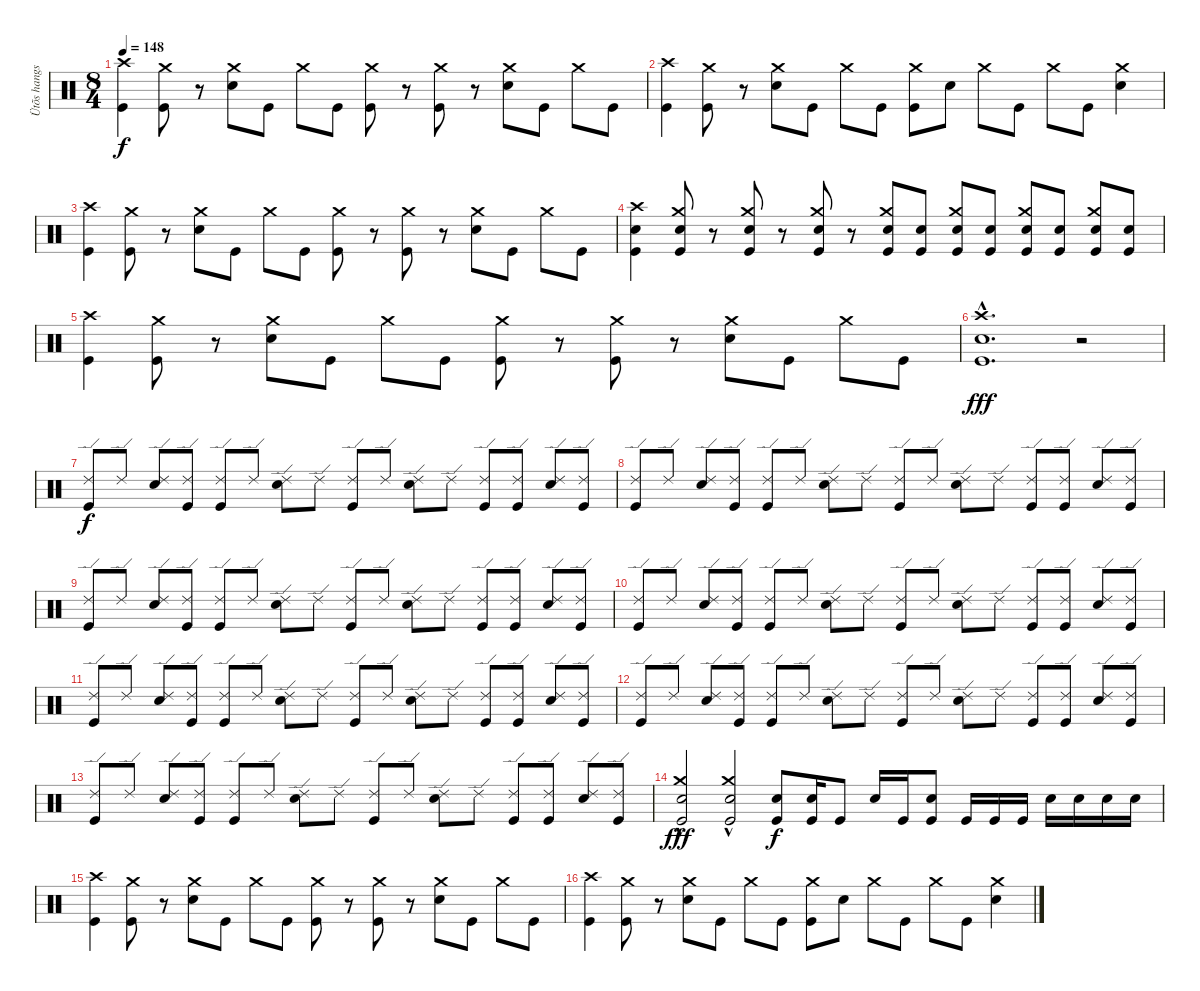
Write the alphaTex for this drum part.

\track ("Ütõs hangszer" "Ütõs hangs") {instrument percussion}
\staff {score}
\articulation defaults
\ts (8 4)
\tempo 148
\clef neutral
\ks c
("Crash high (hit)" "Kick (hit)").4{dy f} ("Crash medium (hit)" "Kick (hit)").8 r.8 ("Crash medium (hit)" "Electric Snare (hit)").8 "Kick (hit)".8 "Crash medium (hit)".8 "Kick (hit)".8 ("Crash medium (hit)" "Kick (hit)").8 r.8 ("Crash medium (hit)" "Kick (hit)").8 r.8 ("Crash medium (hit)" "Electric Snare (hit)").8 "Kick (hit)".8 "Crash medium (hit)".8 "Kick (hit)".8 |
("Crash high (hit)" "Kick (hit)").4 ("Crash medium (hit)" "Kick (hit)").8 r.8 ("Crash medium (hit)" "Electric Snare (hit)").8 "Kick (hit)".8 "Crash medium (hit)".8 "Kick (hit)".8 ("Crash medium (hit)" "Kick (hit)").8 "Electric Snare (hit)".8 "Crash medium (hit)".8 "Kick (hit)".8 "Crash medium (hit)".8 "Kick (hit)".8 ("Crash medium (hit)" "Electric Snare (hit)").4 |
("Crash high (hit)" "Kick (hit)").4 ("Crash medium (hit)" "Kick (hit)").8 r.8 ("Crash medium (hit)" "Electric Snare (hit)").8 "Kick (hit)".8 "Crash medium (hit)".8 "Kick (hit)".8 ("Crash medium (hit)" "Kick (hit)").8 r.8 ("Crash medium (hit)" "Kick (hit)").8 r.8 ("Crash medium (hit)" "Electric Snare (hit)").8 "Kick (hit)".8 "Crash medium (hit)".8 "Kick (hit)".8 |
("Crash high (hit)" "Electric Snare (hit)" "Kick (hit)").4 ("Crash medium (hit)" "Electric Snare (hit)" "Kick (hit)").8 r.8 ("Crash medium (hit)" "Electric Snare (hit)" "Kick (hit)").8 r.8 ("Crash medium (hit)" "Electric Snare (hit)" "Kick (hit)").8 r.8 ("Crash medium (hit)" "Electric Snare (hit)" "Kick (hit)").8 ("Electric Snare (hit)" "Kick (hit)").8 ("Crash medium (hit)" "Electric Snare (hit)" "Kick (hit)").8 ("Electric Snare (hit)" "Kick (hit)").8 ("Crash medium (hit)" "Electric Snare (hit)" "Kick (hit)").8 ("Electric Snare (hit)" "Kick (hit)").8 ("Crash medium (hit)" "Electric Snare (hit)" "Kick (hit)").8 ("Electric Snare (hit)" "Kick (hit)").8 |
("Crash high (hit)" "Kick (hit)").4 ("Crash medium (hit)" "Kick (hit)").8 r.8 ("Crash medium (hit)" "Electric Snare (hit)").8 "Kick (hit)".8 "Crash medium (hit)".8 "Kick (hit)".8 ("Crash medium (hit)" "Kick (hit)").8 r.8 ("Crash medium (hit)" "Kick (hit)").8 r.8 ("Crash medium (hit)" "Electric Snare (hit)").8 "Kick (hit)".8 "Crash medium (hit)".8 "Kick (hit)".8 |
("Crash high (hit)"{hac} "Electric Snare (hit)" "Kick (hit)").1{d dy fff} r.2 |
("Ride (edge) 2" "Kick (hit)").8{dy f} "Ride (edge) 2".8 ("Ride (edge) 2" "Electric Snare (hit)").8 ("Ride (edge) 2" "Kick (hit)").8 ("Ride (edge) 2" "Kick (hit)").8 "Ride (edge) 2".8 ("Ride (edge) 2" "Electric Snare (hit)").8 "Ride (edge) 2".8 ("Ride (edge) 2" "Kick (hit)").8 "Ride (edge) 2".8 ("Ride (edge) 2" "Electric Snare (hit)").8 "Ride (edge) 2".8 ("Ride (edge) 2" "Kick (hit)").8 ("Ride (edge) 2" "Kick (hit)").8 ("Ride (edge) 2" "Electric Snare (hit)").8 ("Ride (edge) 2" "Kick (hit)").8 |
("Ride (edge) 2" "Kick (hit)").8 "Ride (edge) 2".8 ("Ride (edge) 2" "Electric Snare (hit)").8 ("Ride (edge) 2" "Kick (hit)").8 ("Ride (edge) 2" "Kick (hit)").8 "Ride (edge) 2".8 ("Ride (edge) 2" "Electric Snare (hit)").8 "Ride (edge) 2".8 ("Ride (edge) 2" "Kick (hit)").8 "Ride (edge) 2".8 ("Ride (edge) 2" "Electric Snare (hit)").8 "Ride (edge) 2".8 ("Ride (edge) 2" "Kick (hit)").8 ("Ride (edge) 2" "Kick (hit)").8 ("Ride (edge) 2" "Electric Snare (hit)").8 ("Ride (edge) 2" "Kick (hit)").8 |
("Ride (edge) 2" "Kick (hit)").8 "Ride (edge) 2".8 ("Ride (edge) 2" "Electric Snare (hit)").8 ("Ride (edge) 2" "Kick (hit)").8 ("Ride (edge) 2" "Kick (hit)").8 "Ride (edge) 2".8 ("Ride (edge) 2" "Electric Snare (hit)").8 "Ride (edge) 2".8 ("Ride (edge) 2" "Kick (hit)").8 "Ride (edge) 2".8 ("Ride (edge) 2" "Electric Snare (hit)").8 "Ride (edge) 2".8 ("Ride (edge) 2" "Kick (hit)").8 ("Ride (edge) 2" "Kick (hit)").8 ("Ride (edge) 2" "Electric Snare (hit)").8 ("Ride (edge) 2" "Kick (hit)").8 |
("Ride (edge) 2" "Kick (hit)").8 "Ride (edge) 2".8 ("Ride (edge) 2" "Electric Snare (hit)").8 ("Ride (edge) 2" "Kick (hit)").8 ("Ride (edge) 2" "Kick (hit)").8 "Ride (edge) 2".8 ("Ride (edge) 2" "Electric Snare (hit)").8 "Ride (edge) 2".8 ("Ride (edge) 2" "Kick (hit)").8 "Ride (edge) 2".8 ("Ride (edge) 2" "Electric Snare (hit)").8 "Ride (edge) 2".8 ("Ride (edge) 2" "Kick (hit)").8 ("Ride (edge) 2" "Kick (hit)").8 ("Ride (edge) 2" "Electric Snare (hit)").8 ("Ride (edge) 2" "Kick (hit)").8 |
("Ride (edge) 2" "Kick (hit)").8 "Ride (edge) 2".8 ("Ride (edge) 2" "Electric Snare (hit)").8 ("Ride (edge) 2" "Kick (hit)").8 ("Ride (edge) 2" "Kick (hit)").8 "Ride (edge) 2".8 ("Ride (edge) 2" "Electric Snare (hit)").8 "Ride (edge) 2".8 ("Ride (edge) 2" "Kick (hit)").8 "Ride (edge) 2".8 ("Ride (edge) 2" "Electric Snare (hit)").8 "Ride (edge) 2".8 ("Ride (edge) 2" "Kick (hit)").8 ("Ride (edge) 2" "Kick (hit)").8 ("Ride (edge) 2" "Electric Snare (hit)").8 ("Ride (edge) 2" "Kick (hit)").8 |
("Ride (edge) 2" "Kick (hit)").8 "Ride (edge) 2".8 ("Ride (edge) 2" "Electric Snare (hit)").8 ("Ride (edge) 2" "Kick (hit)").8 ("Ride (edge) 2" "Kick (hit)").8 "Ride (edge) 2".8 ("Ride (edge) 2" "Electric Snare (hit)").8 "Ride (edge) 2".8 ("Ride (edge) 2" "Kick (hit)").8 "Ride (edge) 2".8 ("Ride (edge) 2" "Electric Snare (hit)").8 "Ride (edge) 2".8 ("Ride (edge) 2" "Kick (hit)").8 ("Ride (edge) 2" "Kick (hit)").8 ("Ride (edge) 2" "Electric Snare (hit)").8 ("Ride (edge) 2" "Kick (hit)").8 |
("Ride (edge) 2" "Kick (hit)").8 "Ride (edge) 2".8 ("Ride (edge) 2" "Electric Snare (hit)").8 ("Ride (edge) 2" "Kick (hit)").8 ("Ride (edge) 2" "Kick (hit)").8 "Ride (edge) 2".8 ("Ride (edge) 2" "Electric Snare (hit)").8 "Ride (edge) 2".8 ("Ride (edge) 2" "Kick (hit)").8 "Ride (edge) 2".8 ("Ride (edge) 2" "Electric Snare (hit)").8 "Ride (edge) 2".8 ("Ride (edge) 2" "Kick (hit)").8 ("Ride (edge) 2" "Kick (hit)").8 ("Ride (edge) 2" "Electric Snare (hit)").8 ("Ride (edge) 2" "Kick (hit)").8 |
("Crash medium (hit)"{hac} "Electric Snare (hit)" "Kick (hit)").2{dy fff} ("Crash medium (hit)"{hac} "Electric Snare (hit)" "Kick (hit)").2 ("Electric Snare (hit)" "Kick (hit)").8{dy f} ("Electric Snare (hit)" "Kick (hit)").16 "Kick (hit)".8 "Electric Snare (hit)".16 "Kick (hit)".16 ("Electric Snare (hit)" "Kick (hit)").8 "Kick (hit)".16 "Kick (hit)".16 "Kick (hit)".16 "Electric Snare (hit)".16 "Electric Snare (hit)".16 "Electric Snare (hit)".16 "Electric Snare (hit)".16 |
("Crash high (hit)" "Kick (hit)").4 ("Crash medium (hit)" "Kick (hit)").8 r.8 ("Crash medium (hit)" "Electric Snare (hit)").8 "Kick (hit)".8 "Crash medium (hit)".8 "Kick (hit)".8 ("Crash medium (hit)" "Kick (hit)").8 r.8 ("Crash medium (hit)" "Kick (hit)").8 r.8 ("Crash medium (hit)" "Electric Snare (hit)").8 "Kick (hit)".8 "Crash medium (hit)".8 "Kick (hit)".8 |
("Crash high (hit)" "Kick (hit)").4 ("Crash medium (hit)" "Kick (hit)").8 r.8 ("Crash medium (hit)" "Electric Snare (hit)").8 "Kick (hit)".8 "Crash medium (hit)".8 "Kick (hit)".8 ("Crash medium (hit)" "Kick (hit)").8 "Electric Snare (hit)".8 "Crash medium (hit)".8 "Kick (hit)".8 "Crash medium (hit)".8 "Kick (hit)".8 ("Crash medium (hit)" "Electric Snare (hit)").4
